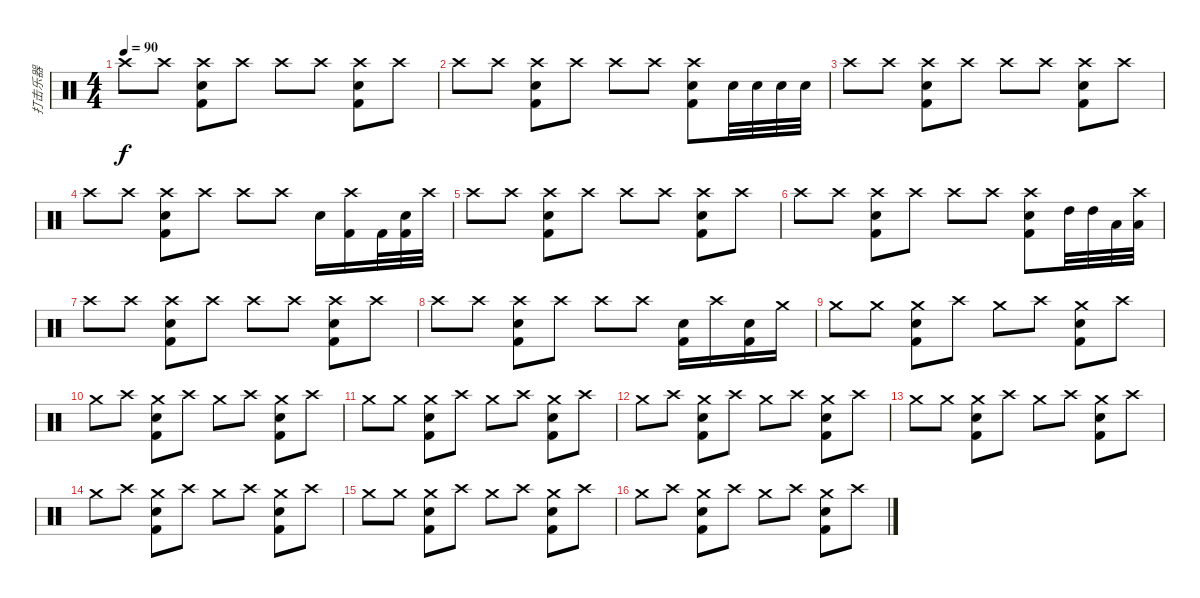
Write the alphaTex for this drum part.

\track ("打击乐器" "打击乐器") {instrument percussion}
\staff {score}
\articulation defaults
\ts (4 4)
\tempo 90
\clef neutral
\ks c "Crash high (hit)".8{dy f} "Crash high (hit)".8
("Crash high (hit)" "Electric Snare (hit)" "Kick (hit) 2").8 "Crash high (hit)".8 "Crash high (hit)".8 "Crash high (hit)".8 ("Crash high (hit)" "Electric Snare (hit)" "Kick (hit) 2").8 "Crash high (hit)".8 |
"Crash high (hit)".8 "Crash high (hit)".8 ("Crash high (hit)" "Electric Snare (hit)" "Kick (hit) 2").8 "Crash high (hit)".8 "Crash high (hit)".8 "Crash high (hit)".8 ("Crash high (hit)" "Electric Snare (hit)" "Kick (hit) 2").8 "Electric Snare (hit)".32 "Electric Snare (hit)".32 "Electric Snare (hit)".32 "Electric Snare (hit)".32 |
"Crash high (hit)".8 "Crash high (hit)".8 ("Crash high (hit)" "Electric Snare (hit)" "Kick (hit) 2").8 "Crash high (hit)".8 "Crash high (hit)".8 "Crash high (hit)".8 ("Crash high (hit)" "Electric Snare (hit)" "Kick (hit) 2").8 "Crash high (hit)".8 |
"Crash high (hit)".8 "Crash high (hit)".8 ("Crash high (hit)" "Electric Snare (hit)" "Kick (hit) 2").8 "Crash high (hit)".8 "Crash high (hit)".8 "Crash high (hit)".8 "Electric Snare (hit)".16 ("Crash high (hit)" "Kick (hit) 2").16 "Kick (hit) 2".32 ("Electric Snare (hit)" "Kick (hit) 2").32 "Crash high (hit)".32 |
"Crash high (hit)".8 "Crash high (hit)".8 ("Crash high (hit)" "Electric Snare (hit)" "Kick (hit) 2").8 "Crash high (hit)".8 "Crash high (hit)".8 "Crash high (hit)".8 ("Crash high (hit)" "Electric Snare (hit)" "Kick (hit) 2").8 "Crash high (hit)".8 |
"Crash high (hit)".8 "Crash high (hit)".8 ("Crash high (hit)" "Electric Snare (hit)" "Kick (hit) 2").8 "Crash high (hit)".8 "Crash high (hit)".8 "Crash high (hit)".8 ("Crash high (hit)" "Electric Snare (hit)" "Kick (hit) 2").8 "High Tom (hit)".32 "High Tom (hit)".32 "Low Tom (hit)".32 ("Crash high (hit)" "Low Tom (hit)").32 |
"Crash high (hit)".8 "Crash high (hit)".8 ("Crash high (hit)" "Electric Snare (hit)" "Kick (hit) 2").8 "Crash high (hit)".8 "Crash high (hit)".8 "Crash high (hit)".8 ("Crash high (hit)" "Electric Snare (hit)" "Kick (hit) 2").8 "Crash high (hit)".8 |
"Crash high (hit)".8 "Crash high (hit)".8 ("Crash high (hit)" "Electric Snare (hit)" "Kick (hit) 2").8 "Crash high (hit)".8 "Crash high (hit)".8 "Crash high (hit)".8 ("Electric Snare (hit)" "Kick (hit) 2").16 "Crash high (hit)".16 ("Electric Snare (hit)" "Kick (hit) 2").16 "Crash medium (hit)".16 |
"Crash medium (hit)".8 "Crash medium (hit)".8 ("Crash medium (hit)" "Electric Snare (hit)" "Kick (hit) 2").8 "Crash high (hit)".8 "Crash medium (hit)".8 "Crash high (hit)".8 ("Crash medium (hit)" "Electric Snare (hit)" "Kick (hit) 2").8 "Crash high (hit)".8 |
"Crash medium (hit)".8 "Crash high (hit)".8 ("Crash medium (hit)" "Electric Snare (hit)" "Kick (hit) 2").8 "Crash high (hit)".8 "Crash medium (hit)".8 "Crash high (hit)".8 ("Crash medium (hit)" "Electric Snare (hit)" "Kick (hit) 2").8 "Crash high (hit)".8 |
"Crash medium (hit)".8 "Crash medium (hit)".8 ("Crash medium (hit)" "Electric Snare (hit)" "Kick (hit) 2").8 "Crash high (hit)".8 "Crash medium (hit)".8 "Crash high (hit)".8 ("Crash medium (hit)" "Electric Snare (hit)" "Kick (hit) 2").8 "Crash high (hit)".8 |
"Crash medium (hit)".8 "Crash high (hit)".8 ("Crash medium (hit)" "Electric Snare (hit)" "Kick (hit) 2").8 "Crash high (hit)".8 "Crash medium (hit)".8 "Crash high (hit)".8 ("Crash medium (hit)" "Electric Snare (hit)" "Kick (hit) 2").8 "Crash high (hit)".8 |
"Crash medium (hit)".8 "Crash medium (hit)".8 ("Crash medium (hit)" "Electric Snare (hit)" "Kick (hit) 2").8 "Crash high (hit)".8 "Crash medium (hit)".8 "Crash high (hit)".8 ("Crash medium (hit)" "Electric Snare (hit)" "Kick (hit) 2").8 "Crash high (hit)".8 |
"Crash medium (hit)".8 "Crash high (hit)".8 ("Crash medium (hit)" "Electric Snare (hit)" "Kick (hit) 2").8 "Crash high (hit)".8 "Crash medium (hit)".8 "Crash high (hit)".8 ("Crash medium (hit)" "Electric Snare (hit)" "Kick (hit) 2").8 "Crash high (hit)".8 |
"Crash medium (hit)".8 "Crash medium (hit)".8 ("Crash medium (hit)" "Electric Snare (hit)" "Kick (hit) 2").8 "Crash high (hit)".8 "Crash medium (hit)".8 "Crash high (hit)".8 ("Crash medium (hit)" "Electric Snare (hit)" "Kick (hit) 2").8 "Crash high (hit)".8 |
"Crash medium (hit)".8 "Crash high (hit)".8 ("Crash medium (hit)" "Electric Snare (hit)" "Kick (hit) 2").8 "Crash high (hit)".8 "Crash medium (hit)".8 "Crash high (hit)".8 ("Crash medium (hit)" "Electric Snare (hit)" "Kick (hit) 2").8 "Crash high (hit)".8
